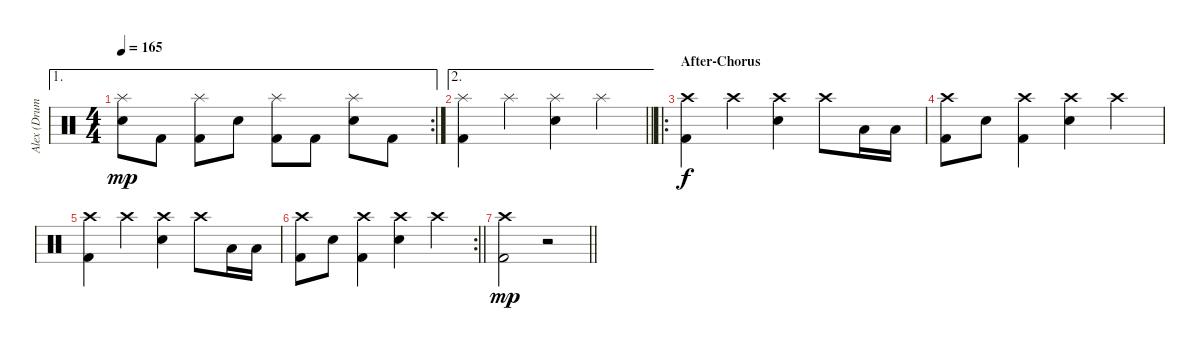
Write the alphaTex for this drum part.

\track ("Alex (Drums)" "Alex (Drum") {instrument percussion}
\staff {score}
\articulation defaults
\ae 1
\rc 2
\ts (4 4)
\tempo 165
\clef neutral
\ks c
("Splash (hit)" "Snare (hit) 2").8{dy mp} "Kick (hit) 2".8 ("Splash (hit)" "Kick (hit) 2").8 "Snare (hit) 2".8 ("Splash (hit)" "Kick (hit) 2").8 "Kick (hit) 2".8 ("Splash (hit)" "Snare (hit) 2").8 "Kick (hit) 2".8 |
\ae 2
\barLineRight lightlight
("Splash (hit)" "Kick (hit) 2").4 "Splash (hit)".4 ("Splash (hit)" "Snare (hit) 2").4 "Splash (hit)".4 |
\ro
\section ("" "After-Chorus")
("Crash high (hit)" "Kick (hit) 2").4{dy f volume 6} "Crash high (hit)".4 ("Crash high (hit)" "Snare (hit) 2").4 "Crash high (hit)".8 "Low Floor Tom (hit)".16 "Low Floor Tom (hit)".16 |
("Crash high (hit)" "Kick (hit) 2").8 "Snare (hit) 2".8 ("Crash high (hit)" "Kick (hit) 2").4 ("Crash high (hit)" "Snare (hit) 2").4 "Crash high (hit)".4 |
("Crash high (hit)" "Kick (hit) 2").4 "Crash high (hit)".4 ("Crash high (hit)" "Snare (hit) 2").4 "Crash high (hit)".8 "Low Floor Tom (hit)".16 "Low Floor Tom (hit)".16 |
\rc 2
\barLineRight lightlight
("Crash high (hit)" "Kick (hit) 2").8 "Snare (hit) 2".8 ("Crash high (hit)" "Kick (hit) 2").4 ("Crash high (hit)" "Snare (hit) 2").4 "Crash high (hit)".4 |
\barLineRight lightlight
("Crash high (hit)" "Kick (hit) 2").2{dy mp volume 11} r.2
